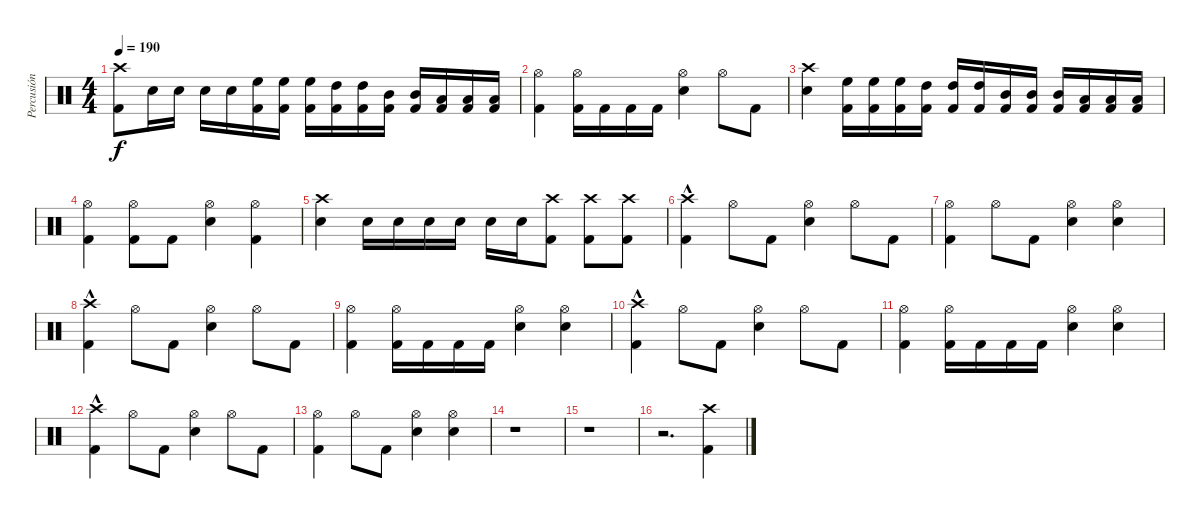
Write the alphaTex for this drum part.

\track ("Percusión" "Percusión") {instrument percussion}
\staff {score}
\articulation defaults
\ts (4 4)
\tempo 190
\clef neutral
\ks c
("Kick (hit) 2" "Crash high (hit)").8{dy f} "Snare (hit) 2".16 "Snare (hit) 2".16 "Snare (hit) 2".16 "Snare (hit) 2".16 ("Kick (hit) 2" "High Floor Tom (hit)").16 ("Kick (hit) 2" "High Floor Tom (hit)").16 ("Kick (hit) 2" "High Floor Tom (hit)").16 ("Kick (hit) 2" "High Tom (hit)").16 ("Kick (hit) 2" "High Tom (hit)").16 ("Kick (hit) 2" "Mid Tom (hit)").16 ("Kick (hit) 2" "Mid Tom (hit)").16 ("Kick (hit) 2" "Low Tom (hit)").16 ("Kick (hit) 2" "Low Tom (hit)").16 ("Kick (hit) 2" "Low Tom (hit)").16 |
("Kick (hit) 2" "Hi-Hat (open)").4 ("Kick (hit) 2" "Hi-Hat (open)").16 "Kick (hit) 2".16 "Kick (hit) 2".16 "Kick (hit) 2".16 ("Snare (hit) 2" "Hi-Hat (open)").4 "Hi-Hat (open)".8 "Kick (hit) 2".8 |
("Snare (hit) 2" "Crash high (hit)").4 ("Kick (hit) 2" "High Floor Tom (hit)").16 ("Kick (hit) 2" "High Floor Tom (hit)").16 ("Kick (hit) 2" "High Floor Tom (hit)").16 ("Kick (hit) 2" "High Tom (hit)").16 ("Kick (hit) 2" "High Tom (hit)").16 ("Kick (hit) 2" "High Tom (hit)").16 ("Kick (hit) 2" "Mid Tom (hit)").16 ("Kick (hit) 2" "Mid Tom (hit)").16 ("Kick (hit) 2" "Mid Tom (hit)").16 ("Kick (hit) 2" "Low Tom (hit)").16 ("Kick (hit) 2" "Low Tom (hit)").16 ("Kick (hit) 2" "Low Tom (hit)").16 |
("Kick (hit) 2" "Hi-Hat (open)").4 ("Kick (hit) 2" "Hi-Hat (open)").8 "Kick (hit) 2".8 ("Snare (hit) 2" "Hi-Hat (open)").4 ("Kick (hit) 2" "Hi-Hat (open)").4 |
("Snare (hit) 2" "Crash high (hit)").4 "Snare (hit) 2".16 "Snare (hit) 2".16 "Snare (hit) 2".16 "Snare (hit) 2".16 "Snare (hit) 2".16 "Snare (hit) 2".16 ("Kick (hit) 2" "Crash high (hit)").8 ("Kick (hit) 2" "Crash high (hit)").8 ("Kick (hit) 2" "Crash high (hit)").8 |
("Kick (hit) 2" "Crash high (hit)"{hac}).4 "Hi-Hat (open)".8 "Kick (hit) 2".8 ("Snare (hit) 2" "Hi-Hat (open)").4 "Hi-Hat (open)".8 "Kick (hit) 2".8 |
("Kick (hit) 2" "Hi-Hat (open)").4 "Hi-Hat (open)".8 "Kick (hit) 2".8 ("Snare (hit) 2" "Hi-Hat (open)").4 ("Snare (hit) 2" "Hi-Hat (open)").4 |
("Kick (hit) 2" "Crash high (hit)"{hac}).4 "Hi-Hat (open)".8 "Kick (hit) 2".8 ("Snare (hit) 2" "Hi-Hat (open)").4 "Hi-Hat (open)".8 "Kick (hit) 2".8 |
("Kick (hit) 2" "Hi-Hat (open)").4 ("Kick (hit) 2" "Hi-Hat (open)").16 "Kick (hit) 2".16 "Kick (hit) 2".16 "Kick (hit) 2".16 ("Snare (hit) 2" "Hi-Hat (open)").4 ("Snare (hit) 2" "Hi-Hat (open)").4 |
("Kick (hit) 2" "Crash high (hit)"{hac}).4 "Hi-Hat (open)".8 "Kick (hit) 2".8 ("Snare (hit) 2" "Hi-Hat (open)").4 "Hi-Hat (open)".8 "Kick (hit) 2".8 |
("Kick (hit) 2" "Hi-Hat (open)").4 ("Kick (hit) 2" "Hi-Hat (open)").16 "Kick (hit) 2".16 "Kick (hit) 2".16 "Kick (hit) 2".16 ("Snare (hit) 2" "Hi-Hat (open)").4 ("Snare (hit) 2" "Hi-Hat (open)").4 |
("Kick (hit) 2" "Crash high (hit)"{hac}).4 "Hi-Hat (open)".8 "Kick (hit) 2".8 ("Snare (hit) 2" "Hi-Hat (open)").4 "Hi-Hat (open)".8 "Kick (hit) 2".8 |
("Kick (hit) 2" "Hi-Hat (open)").4 "Hi-Hat (open)".8 "Kick (hit) 2".8 ("Snare (hit) 2" "Hi-Hat (open)").4 ("Snare (hit) 2" "Hi-Hat (open)").4 |
r.1 |
r.1 |
r.2{d} ("Kick (hit) 2" "Crash high (hit)").4
